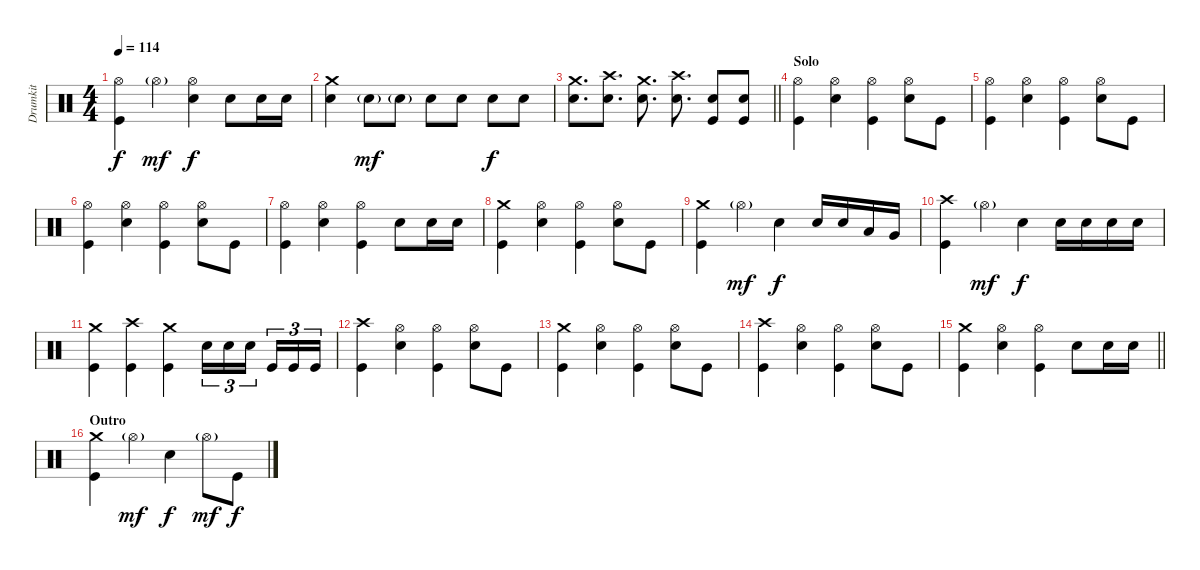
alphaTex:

\track ("Drumkit" "Drumkit") {instrument percussion}
\staff {score}
\articulation defaults
\ts (4 4)
\tempo 114
\clef neutral
\ks c
("Hi-Hat (open)" "Kick (hit)").4{dy f} "Hi-Hat (open)"{g}.4{dy mf} ("Hi-Hat (open)" "Snare (hit) 2").4{dy f} "Snare (hit) 2".8 "Snare (hit) 2".16 "Snare (hit) 2".16 |
("Crash medium (hit)" "Snare (hit) 2").4 "Snare (hit) 2"{g}.8{dy mf} "Snare (hit) 2"{g}.8 "Snare (hit) 2".8 "Snare (hit) 2".8 "Snare (hit) 2".8{dy f} "Snare (hit) 2".8 |
\barLineRight lightlight
("Crash medium (hit)" "Snare (hit) 2").8{d} ("Crash high (hit)" "Snare (hit) 2").8{d} ("Crash medium (hit)" "Snare (hit) 2").8{d} ("Crash high (hit)" "Snare (hit) 2").8{d} ("Snare (hit) 2" "Kick (hit)").8 ("Snare (hit) 2" "Kick (hit)").8 |
\section ("" "Solo")
("Hi-Hat (open)" "Kick (hit)").4 ("Hi-Hat (open)" "Snare (hit) 2").4 ("Hi-Hat (open)" "Kick (hit)").4 ("Hi-Hat (open)" "Snare (hit) 2").8 "Kick (hit)".8 |
("Hi-Hat (open)" "Kick (hit)").4 ("Hi-Hat (open)" "Snare (hit) 2").4 ("Hi-Hat (open)" "Kick (hit)").4 ("Hi-Hat (open)" "Snare (hit) 2").8 "Kick (hit)".8 |
("Hi-Hat (open)" "Kick (hit)").4 ("Hi-Hat (open)" "Snare (hit) 2").4 ("Hi-Hat (open)" "Kick (hit)").4 ("Hi-Hat (open)" "Snare (hit) 2").8 "Kick (hit)".8 |
("Hi-Hat (open)" "Kick (hit)").4 ("Hi-Hat (open)" "Snare (hit) 2").4 ("Hi-Hat (open)" "Kick (hit)").4 "Snare (hit) 2".8 "Snare (hit) 2".16 "Snare (hit) 2".16 |
("Crash medium (hit)" "Kick (hit)").4 ("Hi-Hat (open)" "Snare (hit) 2").4 ("Hi-Hat (open)" "Kick (hit)").4 ("Hi-Hat (open)" "Snare (hit) 2").8 "Kick (hit)".8 |
("Crash medium (hit)" "Kick (hit)").4 "Hi-Hat (open)"{g}.4{dy mf} "Snare (hit) 2".4{dy f} "Snare (hit) 2".16 "Snare (hit) 2".16 "Low Tom (hit)".16 "Very Low Tom (hit)".16 |
("Crash high (hit)" "Kick (hit)").4 "Hi-Hat (open)"{g}.4{dy mf} "Snare (hit) 2".4{dy f} "Snare (hit) 2".16 "Snare (hit) 2".16 "Snare (hit) 2".16 "Snare (hit) 2".16 |
("Crash medium (hit)" "Kick (hit)").4 ("Crash high (hit)" "Kick (hit)").4 ("Crash medium (hit)" "Kick (hit)").4 "Snare (hit) 2".16{tu (3 2)} "Snare (hit) 2".16{tu (3 2)} "Snare (hit) 2".16{tu (3 2)} "Kick (hit)".16{tu (3 2)} "Kick (hit)".16{tu (3 2)} "Kick (hit)".16{tu (3 2)} |
("Crash high (hit)" "Kick (hit)").4 ("Hi-Hat (open)" "Snare (hit) 2").4 ("Hi-Hat (open)" "Kick (hit)").4 ("Hi-Hat (open)" "Snare (hit) 2").8 "Kick (hit)".8 |
("Crash medium (hit)" "Kick (hit)").4 ("Hi-Hat (open)" "Snare (hit) 2").4 ("Hi-Hat (open)" "Kick (hit)").4 ("Hi-Hat (open)" "Snare (hit) 2").8 "Kick (hit)".8 |
("Crash high (hit)" "Kick (hit)").4 ("Hi-Hat (open)" "Snare (hit) 2").4 ("Hi-Hat (open)" "Kick (hit)").4 ("Hi-Hat (open)" "Snare (hit) 2").8 "Kick (hit)".8 |
\barLineRight lightlight
("Crash medium (hit)" "Kick (hit)").4 ("Hi-Hat (open)" "Snare (hit) 2").4 ("Hi-Hat (open)" "Kick (hit)").4 "Snare (hit) 2".8 "Snare (hit) 2".16 "Snare (hit) 2".16 |
\section ("" "Outro")
("Crash medium (hit)" "Kick (hit)").4 "Hi-Hat (open)"{g}.4{dy mf} "Snare (hit) 2".4{dy f} "Hi-Hat (open)"{g}.8{dy mf} "Kick (hit)".8{dy f}
